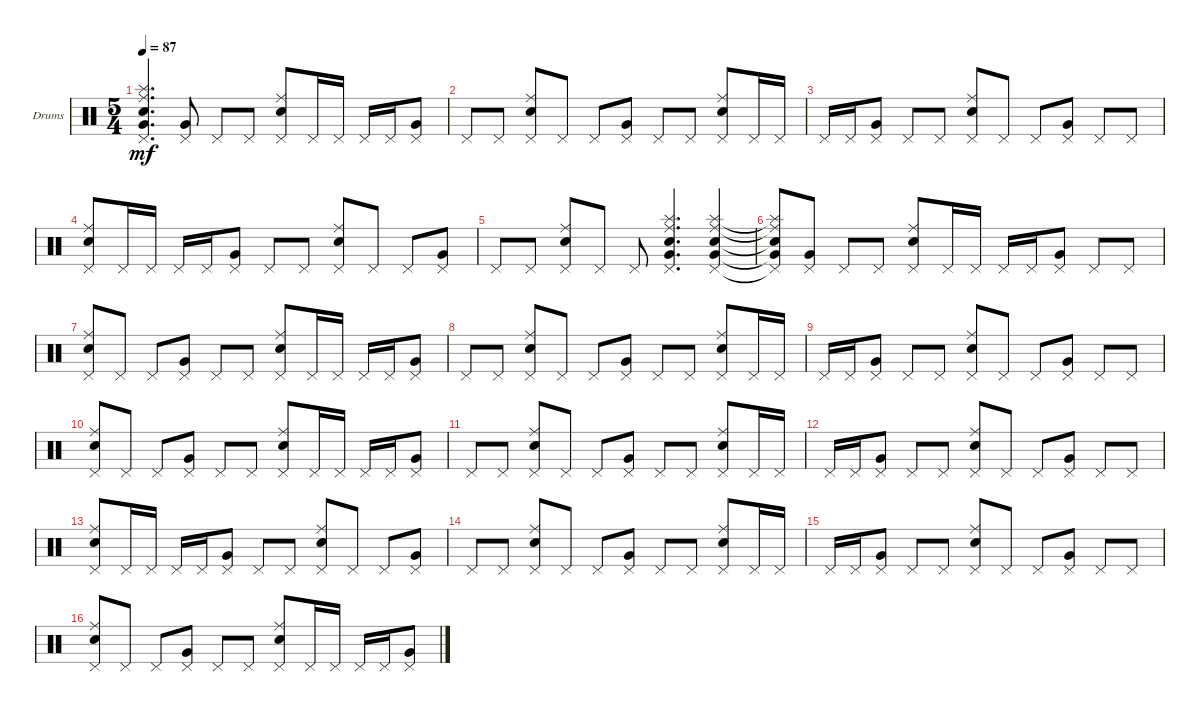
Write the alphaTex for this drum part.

\defaultSystemsLayout 4
\bracketExtendMode groupsimilarinstruments
\firstSystemTrackNameOrientation horizontal
\otherSystemsTrackNameOrientation horizontal
\track ("Drumkit" "Drums") {instrument percussion}
\staff {score}
\articulation defaults
\ts (5 4)
\tempo 87
\clef neutral
\ks c
("Pedal Hi-Hat (hit)" "Very Low Tom (hit)" "Splash (hit)" "Ride (middle)" "Snare (hit) 2").4{d dy mf} ("Pedal Hi-Hat (hit)" "Very Low Tom (hit)").8 "Pedal Hi-Hat (hit)".8 "Pedal Hi-Hat (hit)".8 ("Pedal Hi-Hat (hit)" "Snare (hit) 2" "Ride (middle)").8 "Pedal Hi-Hat (hit)".16 "Pedal Hi-Hat (hit)".16 "Pedal Hi-Hat (hit)".16 "Pedal Hi-Hat (hit)".16 ("Pedal Hi-Hat (hit)" "Very Low Tom (hit)").8 |
"Pedal Hi-Hat (hit)".8 "Pedal Hi-Hat (hit)".8 ("Pedal Hi-Hat (hit)" "Snare (hit) 2" "Ride (middle)").8 "Pedal Hi-Hat (hit)".8 "Pedal Hi-Hat (hit)".8 ("Pedal Hi-Hat (hit)" "Very Low Tom (hit)").8 "Pedal Hi-Hat (hit)".8 "Pedal Hi-Hat (hit)".8 ("Pedal Hi-Hat (hit)" "Snare (hit) 2" "Ride (middle)").8 "Pedal Hi-Hat (hit)".16 "Pedal Hi-Hat (hit)".16 |
"Pedal Hi-Hat (hit)".16 "Pedal Hi-Hat (hit)".16 ("Pedal Hi-Hat (hit)" "Very Low Tom (hit)").8 "Pedal Hi-Hat (hit)".8 "Pedal Hi-Hat (hit)".8 ("Pedal Hi-Hat (hit)" "Snare (hit) 2" "Ride (middle)").8 "Pedal Hi-Hat (hit)".8 "Pedal Hi-Hat (hit)".8 ("Pedal Hi-Hat (hit)" "Very Low Tom (hit)").8 "Pedal Hi-Hat (hit)".8 "Pedal Hi-Hat (hit)".8 |
("Pedal Hi-Hat (hit)" "Snare (hit) 2" "Ride (middle)").8 "Pedal Hi-Hat (hit)".16 "Pedal Hi-Hat (hit)".16 "Pedal Hi-Hat (hit)".16 "Pedal Hi-Hat (hit)".16 ("Pedal Hi-Hat (hit)" "Very Low Tom (hit)").8 "Pedal Hi-Hat (hit)".8 "Pedal Hi-Hat (hit)".8 ("Pedal Hi-Hat (hit)" "Snare (hit) 2" "Ride (middle)").8 "Pedal Hi-Hat (hit)".8 "Pedal Hi-Hat (hit)".8 ("Pedal Hi-Hat (hit)" "Very Low Tom (hit)").8 |
"Pedal Hi-Hat (hit)".8 "Pedal Hi-Hat (hit)".8 ("Pedal Hi-Hat (hit)" "Snare (hit) 2" "Ride (middle)").8 "Pedal Hi-Hat (hit)".8 "Pedal Hi-Hat (hit)".8 ("Pedal Hi-Hat (hit)" "Very Low Tom (hit)" "Splash (hit)" "Ride (middle)" "Snare (hit) 2").4{d} ("Pedal Hi-Hat (hit)" "Very Low Tom (hit)" "Splash (hit)" "Ride (middle)" "Snare (hit) 2").4 |
("Pedal Hi-Hat (hit)"{t} "Very Low Tom (hit)"{t} "Splash (hit)"{t} "Ride (middle)"{t} "Snare (hit) 2"{t}).8 ("Pedal Hi-Hat (hit)" "Very Low Tom (hit)").8 "Pedal Hi-Hat (hit)".8 "Pedal Hi-Hat (hit)".8 ("Pedal Hi-Hat (hit)" "Snare (hit) 2" "Ride (middle)").8 "Pedal Hi-Hat (hit)".16 "Pedal Hi-Hat (hit)".16 "Pedal Hi-Hat (hit)".16 "Pedal Hi-Hat (hit)".16 ("Pedal Hi-Hat (hit)" "Very Low Tom (hit)").8 "Pedal Hi-Hat (hit)".8 "Pedal Hi-Hat (hit)".8 |
("Pedal Hi-Hat (hit)" "Snare (hit) 2" "Ride (middle)").8 "Pedal Hi-Hat (hit)".8 "Pedal Hi-Hat (hit)".8 ("Pedal Hi-Hat (hit)" "Very Low Tom (hit)").8 "Pedal Hi-Hat (hit)".8 "Pedal Hi-Hat (hit)".8 ("Pedal Hi-Hat (hit)" "Snare (hit) 2" "Ride (middle)").8 "Pedal Hi-Hat (hit)".16 "Pedal Hi-Hat (hit)".16 "Pedal Hi-Hat (hit)".16 "Pedal Hi-Hat (hit)".16 ("Pedal Hi-Hat (hit)" "Very Low Tom (hit)").8 |
"Pedal Hi-Hat (hit)".8 "Pedal Hi-Hat (hit)".8 ("Pedal Hi-Hat (hit)" "Snare (hit) 2" "Ride (middle)").8 "Pedal Hi-Hat (hit)".8 "Pedal Hi-Hat (hit)".8 ("Pedal Hi-Hat (hit)" "Very Low Tom (hit)").8 "Pedal Hi-Hat (hit)".8 "Pedal Hi-Hat (hit)".8 ("Pedal Hi-Hat (hit)" "Snare (hit) 2" "Ride (middle)").8 "Pedal Hi-Hat (hit)".16 "Pedal Hi-Hat (hit)".16 |
"Pedal Hi-Hat (hit)".16 "Pedal Hi-Hat (hit)".16 ("Pedal Hi-Hat (hit)" "Very Low Tom (hit)").8 "Pedal Hi-Hat (hit)".8 "Pedal Hi-Hat (hit)".8 ("Pedal Hi-Hat (hit)" "Snare (hit) 2" "Ride (middle)").8 "Pedal Hi-Hat (hit)".8 "Pedal Hi-Hat (hit)".8 ("Pedal Hi-Hat (hit)" "Very Low Tom (hit)").8 "Pedal Hi-Hat (hit)".8 "Pedal Hi-Hat (hit)".8 |
("Pedal Hi-Hat (hit)" "Snare (hit) 2" "Ride (middle)").8 "Pedal Hi-Hat (hit)".8 "Pedal Hi-Hat (hit)".8 ("Pedal Hi-Hat (hit)" "Very Low Tom (hit)").8 "Pedal Hi-Hat (hit)".8 "Pedal Hi-Hat (hit)".8 ("Pedal Hi-Hat (hit)" "Snare (hit) 2" "Ride (middle)").8 "Pedal Hi-Hat (hit)".16 "Pedal Hi-Hat (hit)".16 "Pedal Hi-Hat (hit)".16 "Pedal Hi-Hat (hit)".16 ("Pedal Hi-Hat (hit)" "Very Low Tom (hit)").8 |
"Pedal Hi-Hat (hit)".8 "Pedal Hi-Hat (hit)".8 ("Pedal Hi-Hat (hit)" "Snare (hit) 2" "Ride (middle)").8 "Pedal Hi-Hat (hit)".8 "Pedal Hi-Hat (hit)".8 ("Pedal Hi-Hat (hit)" "Very Low Tom (hit)").8 "Pedal Hi-Hat (hit)".8 "Pedal Hi-Hat (hit)".8 ("Pedal Hi-Hat (hit)" "Snare (hit) 2" "Ride (middle)").8 "Pedal Hi-Hat (hit)".16 "Pedal Hi-Hat (hit)".16 |
"Pedal Hi-Hat (hit)".16 "Pedal Hi-Hat (hit)".16 ("Pedal Hi-Hat (hit)" "Very Low Tom (hit)").8 "Pedal Hi-Hat (hit)".8 "Pedal Hi-Hat (hit)".8 ("Pedal Hi-Hat (hit)" "Snare (hit) 2" "Ride (middle)").8 "Pedal Hi-Hat (hit)".8 "Pedal Hi-Hat (hit)".8 ("Pedal Hi-Hat (hit)" "Very Low Tom (hit)").8 "Pedal Hi-Hat (hit)".8 "Pedal Hi-Hat (hit)".8 |
("Pedal Hi-Hat (hit)" "Snare (hit) 2" "Ride (middle)").8 "Pedal Hi-Hat (hit)".16 "Pedal Hi-Hat (hit)".16 "Pedal Hi-Hat (hit)".16 "Pedal Hi-Hat (hit)".16 ("Pedal Hi-Hat (hit)" "Very Low Tom (hit)").8 "Pedal Hi-Hat (hit)".8 "Pedal Hi-Hat (hit)".8 ("Pedal Hi-Hat (hit)" "Snare (hit) 2" "Ride (middle)").8 "Pedal Hi-Hat (hit)".8 "Pedal Hi-Hat (hit)".8 ("Pedal Hi-Hat (hit)" "Very Low Tom (hit)").8 |
"Pedal Hi-Hat (hit)".8 "Pedal Hi-Hat (hit)".8 ("Pedal Hi-Hat (hit)" "Snare (hit) 2" "Ride (middle)").8 "Pedal Hi-Hat (hit)".8 "Pedal Hi-Hat (hit)".8 ("Pedal Hi-Hat (hit)" "Very Low Tom (hit)").8 "Pedal Hi-Hat (hit)".8 "Pedal Hi-Hat (hit)".8 ("Pedal Hi-Hat (hit)" "Snare (hit) 2" "Ride (middle)").8 "Pedal Hi-Hat (hit)".16 "Pedal Hi-Hat (hit)".16 |
"Pedal Hi-Hat (hit)".16 "Pedal Hi-Hat (hit)".16 ("Pedal Hi-Hat (hit)" "Very Low Tom (hit)").8 "Pedal Hi-Hat (hit)".8 "Pedal Hi-Hat (hit)".8 ("Pedal Hi-Hat (hit)" "Snare (hit) 2" "Ride (middle)").8 "Pedal Hi-Hat (hit)".8 "Pedal Hi-Hat (hit)".8 ("Pedal Hi-Hat (hit)" "Very Low Tom (hit)").8 "Pedal Hi-Hat (hit)".8 "Pedal Hi-Hat (hit)".8 |
("Pedal Hi-Hat (hit)" "Snare (hit) 2" "Ride (middle)").8 "Pedal Hi-Hat (hit)".8 "Pedal Hi-Hat (hit)".8 ("Pedal Hi-Hat (hit)" "Very Low Tom (hit)").8 "Pedal Hi-Hat (hit)".8 "Pedal Hi-Hat (hit)".8 ("Pedal Hi-Hat (hit)" "Snare (hit) 2" "Ride (middle)").8 "Pedal Hi-Hat (hit)".16 "Pedal Hi-Hat (hit)".16 "Pedal Hi-Hat (hit)".16 "Pedal Hi-Hat (hit)".16 ("Pedal Hi-Hat (hit)" "Very Low Tom (hit)").8
